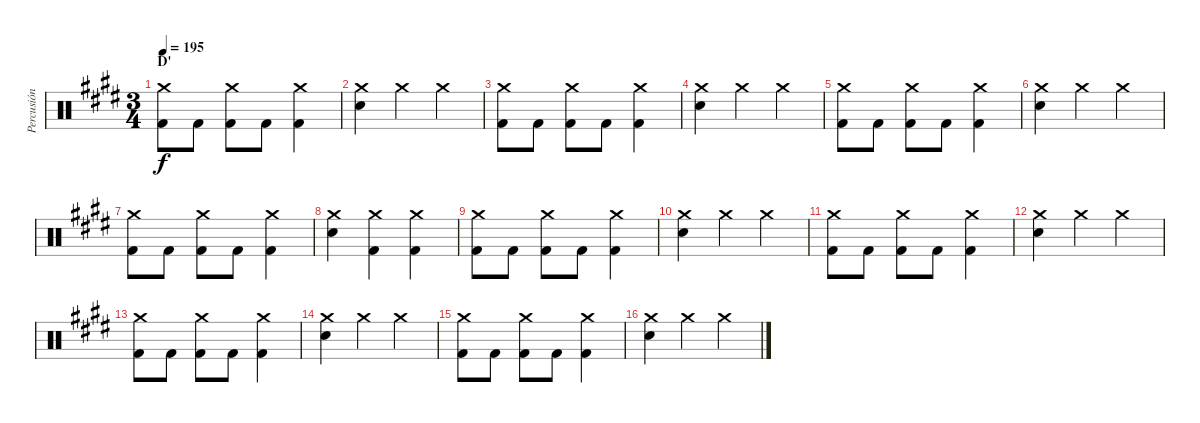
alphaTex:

\track ("Percusión" "Percusión") {instrument percussion}
\staff {score}
\articulation defaults
\ts (3 4)
\section ("" "D'")
\tempo 195
\clef neutral
\ks e
("Crash medium (hit)" "Kick (hit) 2").8{dy f} "Kick (hit) 2".8 ("Crash medium (hit)" "Kick (hit) 2").8 "Kick (hit) 2".8 ("Crash medium (hit)" "Kick (hit) 2").4 |
("Crash medium (hit)" "Electric Snare (hit)").4 "Crash medium (hit)".4 "Crash medium (hit)".4 |
("Crash medium (hit)" "Kick (hit) 2").8 "Kick (hit) 2".8 ("Crash medium (hit)" "Kick (hit) 2").8 "Kick (hit) 2".8 ("Crash medium (hit)" "Kick (hit) 2").4 |
("Crash medium (hit)" "Electric Snare (hit)").4 "Crash medium (hit)".4 "Crash medium (hit)".4 |
("Crash medium (hit)" "Kick (hit) 2").8 "Kick (hit) 2".8 ("Crash medium (hit)" "Kick (hit) 2").8 "Kick (hit) 2".8 ("Crash medium (hit)" "Kick (hit) 2").4 |
("Crash medium (hit)" "Electric Snare (hit)").4 "Crash medium (hit)".4 "Crash medium (hit)".4 |
("Crash medium (hit)" "Kick (hit) 2").8 "Kick (hit) 2".8 ("Crash medium (hit)" "Kick (hit) 2").8 "Kick (hit) 2".8 ("Crash medium (hit)" "Kick (hit) 2").4 |
("Crash medium (hit)" "Electric Snare (hit)").4 ("Crash medium (hit)" "Kick (hit) 2").4 ("Crash medium (hit)" "Kick (hit) 2").4 |
("Crash medium (hit)" "Kick (hit) 2").8 "Kick (hit) 2".8 ("Crash medium (hit)" "Kick (hit) 2").8 "Kick (hit) 2".8 ("Crash medium (hit)" "Kick (hit) 2").4 |
("Crash medium (hit)" "Electric Snare (hit)").4 "Crash medium (hit)".4 "Crash medium (hit)".4 |
("Crash medium (hit)" "Kick (hit) 2").8 "Kick (hit) 2".8 ("Crash medium (hit)" "Kick (hit) 2").8 "Kick (hit) 2".8 ("Crash medium (hit)" "Kick (hit) 2").4 |
("Crash medium (hit)" "Electric Snare (hit)").4 "Crash medium (hit)".4 "Crash medium (hit)".4 |
("Crash medium (hit)" "Kick (hit) 2").8 "Kick (hit) 2".8 ("Crash medium (hit)" "Kick (hit) 2").8 "Kick (hit) 2".8 ("Crash medium (hit)" "Kick (hit) 2").4 |
("Crash medium (hit)" "Electric Snare (hit)").4 "Crash medium (hit)".4 "Crash medium (hit)".4 |
("Crash medium (hit)" "Kick (hit) 2").8 "Kick (hit) 2".8 ("Crash medium (hit)" "Kick (hit) 2").8 "Kick (hit) 2".8 ("Crash medium (hit)" "Kick (hit) 2").4 |
("Crash medium (hit)" "Electric Snare (hit)").4 "Crash medium (hit)".4 "Crash medium (hit)".4
